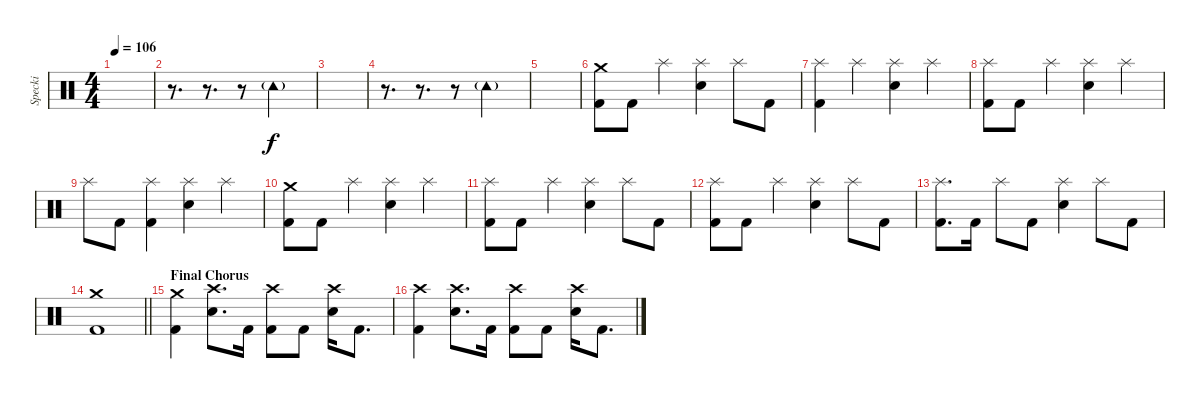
\track ("Specki" "Specki") {instrument percussion}
\staff {score}
\articulation defaults
\ts (4 4)
\tempo 106
\clef neutral
\ks c
|
r.8{d} r.8{d} r.8 "Tambourine (hit)"{g}.2 |
|
r.8{d} r.8{d} r.8 "Tambourine (hit)"{g}.2 |
|
("Crash medium (hit)" "Kick (hit) 2").8{dy f} "Kick (hit) 2".8 "Splash (hit)".4 ("Splash (hit)" "Snare (hit) 2").4 "Splash (hit)".8 "Kick (hit) 2".8 |
("Splash (hit)" "Kick (hit) 2").4 "Splash (hit)".4 ("Splash (hit)" "Snare (hit) 2").4 "Splash (hit)".4 |
("Splash (hit)" "Kick (hit) 2").8 "Kick (hit) 2".8 "Splash (hit)".4 ("Splash (hit)" "Snare (hit) 2").4 "Splash (hit)".4 |
"Splash (hit)".8 "Kick (hit) 2".8 ("Splash (hit)" "Kick (hit) 2").4 ("Splash (hit)" "Snare (hit) 2").4 "Splash (hit)".4 |
("Crash medium (hit)" "Kick (hit) 2").8 "Kick (hit) 2".8 "Splash (hit)".4 ("Splash (hit)" "Snare (hit) 2").4 "Splash (hit)".4 |
("Splash (hit)" "Kick (hit) 2").8 "Kick (hit) 2".8 "Splash (hit)".4 ("Splash (hit)" "Snare (hit) 2").4 "Splash (hit)".8 "Kick (hit) 2".8 |
("Splash (hit)" "Kick (hit) 2").8 "Kick (hit) 2".8 "Splash (hit)".4 ("Splash (hit)" "Snare (hit) 2").4 "Splash (hit)".8 "Kick (hit) 2".8 |
("Splash (hit)" "Kick (hit) 2").8{d} "Kick (hit) 2".16 "Splash (hit)".8 "Kick (hit) 2".8 ("Splash (hit)" "Snare (hit) 2").4 "Splash (hit)".8 "Kick (hit) 2".8 |
\barLineRight lightlight
("Crash medium (hit)" "Kick (hit) 2").1 |
\section ("" "Final Chorus")
("Crash medium (hit)" "Kick (hit) 2").4 ("Crash high (hit)" "Snare (hit) 2").8{d} "Kick (hit) 2".16 ("Crash high (hit)" "Kick (hit) 2").8 "Kick (hit) 2".8 ("Crash high (hit)" "Snare (hit) 2").16 "Kick (hit) 2".8{d} |
("Crash high (hit)" "Kick (hit) 2").4 ("Crash high (hit)" "Snare (hit) 2").8{d} "Kick (hit) 2".16 ("Crash high (hit)" "Kick (hit) 2").8 "Kick (hit) 2".8 ("Crash high (hit)" "Snare (hit) 2").16 "Kick (hit) 2".8{d}
